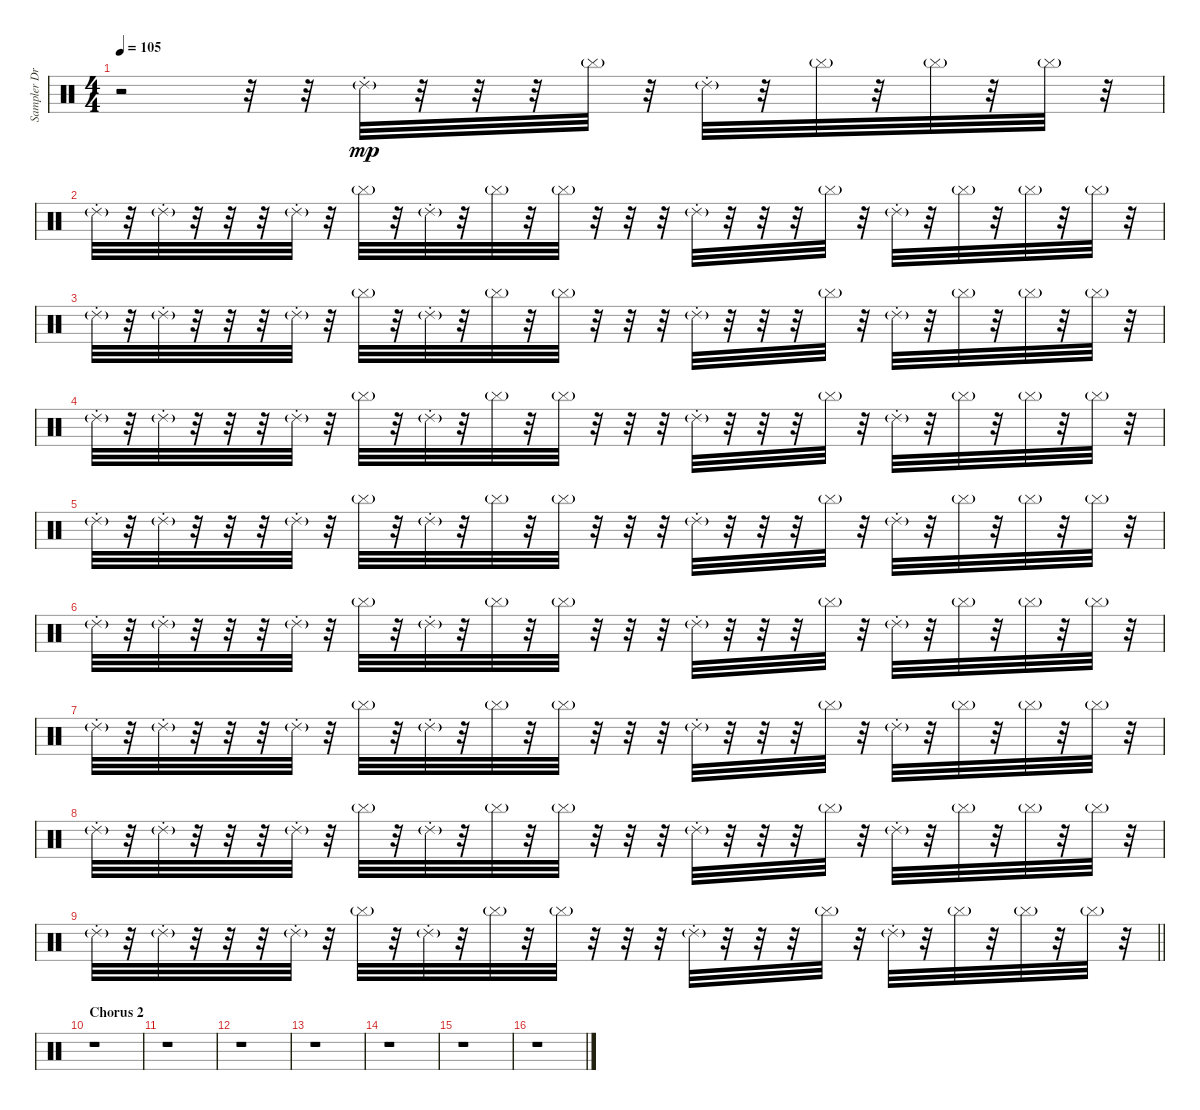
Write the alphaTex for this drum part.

\track ("Sampler Drums" "Sampler Dr") {instrument percussion}
\staff {score}
\articulation defaults
\ts (4 4)
\tempo 105
\clef neutral
\ks c
r.2{dy mp} r.32 r.32 "Ride (choke) 2"{g}.32 r.32 r.32 r.32 "Cymbal (hit)"{g}.32 r.32 "Ride (choke) 2"{g}.32 r.32 "Cymbal (hit)"{g}.32 r.32 "Cymbal (hit)"{g}.32 r.32 "Cymbal (hit)"{g}.32 r.32 |
"Ride (choke) 2"{g}.32 r.32 "Ride (choke) 2"{g}.32 r.32 r.32 r.32 "Ride (choke) 2"{g}.32 r.32 "Cymbal (hit)"{g}.32 r.32 "Ride (choke) 2"{g}.32 r.32 "Cymbal (hit)"{g}.32 r.32 "Cymbal (hit)"{g}.32 r.32 r.32 r.32 "Ride (choke) 2"{g}.32 r.32 r.32 r.32 "Cymbal (hit)"{g}.32 r.32 "Ride (choke) 2"{g}.32 r.32 "Cymbal (hit)"{g}.32 r.32 "Cymbal (hit)"{g}.32 r.32 "Cymbal (hit)"{g}.32 r.32 |
"Ride (choke) 2"{g}.32 r.32 "Ride (choke) 2"{g}.32 r.32 r.32 r.32 "Ride (choke) 2"{g}.32 r.32 "Cymbal (hit)"{g}.32 r.32 "Ride (choke) 2"{g}.32 r.32 "Cymbal (hit)"{g}.32 r.32 "Cymbal (hit)"{g}.32 r.32 r.32 r.32 "Ride (choke) 2"{g}.32 r.32 r.32 r.32 "Cymbal (hit)"{g}.32 r.32 "Ride (choke) 2"{g}.32 r.32 "Cymbal (hit)"{g}.32 r.32 "Cymbal (hit)"{g}.32 r.32 "Cymbal (hit)"{g}.32 r.32 |
"Ride (choke) 2"{g}.32 r.32 "Ride (choke) 2"{g}.32 r.32 r.32 r.32 "Ride (choke) 2"{g}.32 r.32 "Cymbal (hit)"{g}.32 r.32 "Ride (choke) 2"{g}.32 r.32 "Cymbal (hit)"{g}.32 r.32 "Cymbal (hit)"{g}.32 r.32 r.32 r.32 "Ride (choke) 2"{g}.32 r.32 r.32 r.32 "Cymbal (hit)"{g}.32 r.32 "Ride (choke) 2"{g}.32 r.32 "Cymbal (hit)"{g}.32 r.32 "Cymbal (hit)"{g}.32 r.32 "Cymbal (hit)"{g}.32 r.32 |
"Ride (choke) 2"{g}.32 r.32 "Ride (choke) 2"{g}.32 r.32 r.32 r.32 "Ride (choke) 2"{g}.32 r.32 "Cymbal (hit)"{g}.32 r.32 "Ride (choke) 2"{g}.32 r.32 "Cymbal (hit)"{g}.32 r.32 "Cymbal (hit)"{g}.32 r.32 r.32 r.32 "Ride (choke) 2"{g}.32 r.32 r.32 r.32 "Cymbal (hit)"{g}.32 r.32 "Ride (choke) 2"{g}.32 r.32 "Cymbal (hit)"{g}.32 r.32 "Cymbal (hit)"{g}.32 r.32 "Cymbal (hit)"{g}.32 r.32 |
"Ride (choke) 2"{g}.32 r.32 "Ride (choke) 2"{g}.32 r.32 r.32 r.32 "Ride (choke) 2"{g}.32 r.32 "Cymbal (hit)"{g}.32 r.32 "Ride (choke) 2"{g}.32 r.32 "Cymbal (hit)"{g}.32 r.32 "Cymbal (hit)"{g}.32 r.32 r.32 r.32 "Ride (choke) 2"{g}.32 r.32 r.32 r.32 "Cymbal (hit)"{g}.32 r.32 "Ride (choke) 2"{g}.32 r.32 "Cymbal (hit)"{g}.32 r.32 "Cymbal (hit)"{g}.32 r.32 "Cymbal (hit)"{g}.32 r.32 |
"Ride (choke) 2"{g}.32 r.32 "Ride (choke) 2"{g}.32 r.32 r.32 r.32 "Ride (choke) 2"{g}.32 r.32 "Cymbal (hit)"{g}.32 r.32 "Ride (choke) 2"{g}.32 r.32 "Cymbal (hit)"{g}.32 r.32 "Cymbal (hit)"{g}.32 r.32 r.32 r.32 "Ride (choke) 2"{g}.32 r.32 r.32 r.32 "Cymbal (hit)"{g}.32 r.32 "Ride (choke) 2"{g}.32 r.32 "Cymbal (hit)"{g}.32 r.32 "Cymbal (hit)"{g}.32 r.32 "Cymbal (hit)"{g}.32 r.32 |
"Ride (choke) 2"{g}.32 r.32 "Ride (choke) 2"{g}.32 r.32 r.32 r.32 "Ride (choke) 2"{g}.32 r.32 "Cymbal (hit)"{g}.32 r.32 "Ride (choke) 2"{g}.32 r.32 "Cymbal (hit)"{g}.32 r.32 "Cymbal (hit)"{g}.32 r.32 r.32 r.32 "Ride (choke) 2"{g}.32 r.32 r.32 r.32 "Cymbal (hit)"{g}.32 r.32 "Ride (choke) 2"{g}.32 r.32 "Cymbal (hit)"{g}.32 r.32 "Cymbal (hit)"{g}.32 r.32 "Cymbal (hit)"{g}.32 r.32 |
\barLineRight lightlight "Ride (choke) 2"{g}.32
r.32 "Ride (choke) 2"{g}.32 r.32 r.32 r.32 "Ride (choke) 2"{g}.32 r.32 "Cymbal (hit)"{g}.32 r.32 "Ride (choke) 2"{g}.32 r.32 "Cymbal (hit)"{g}.32 r.32 "Cymbal (hit)"{g}.32 r.32 r.32 r.32 "Ride (choke) 2"{g}.32 r.32 r.32 r.32 "Cymbal (hit)"{g}.32 r.32 "Ride (choke) 2"{g}.32 r.32 "Cymbal (hit)"{g}.32 r.32 "Cymbal (hit)"{g}.32 r.32 "Cymbal (hit)"{g}.32 r.32 |
\section ("" "Chorus 2")
r.1 |
r.1 |
r.1 |
r.1 |
r.1 |
r.1 |
r.1
